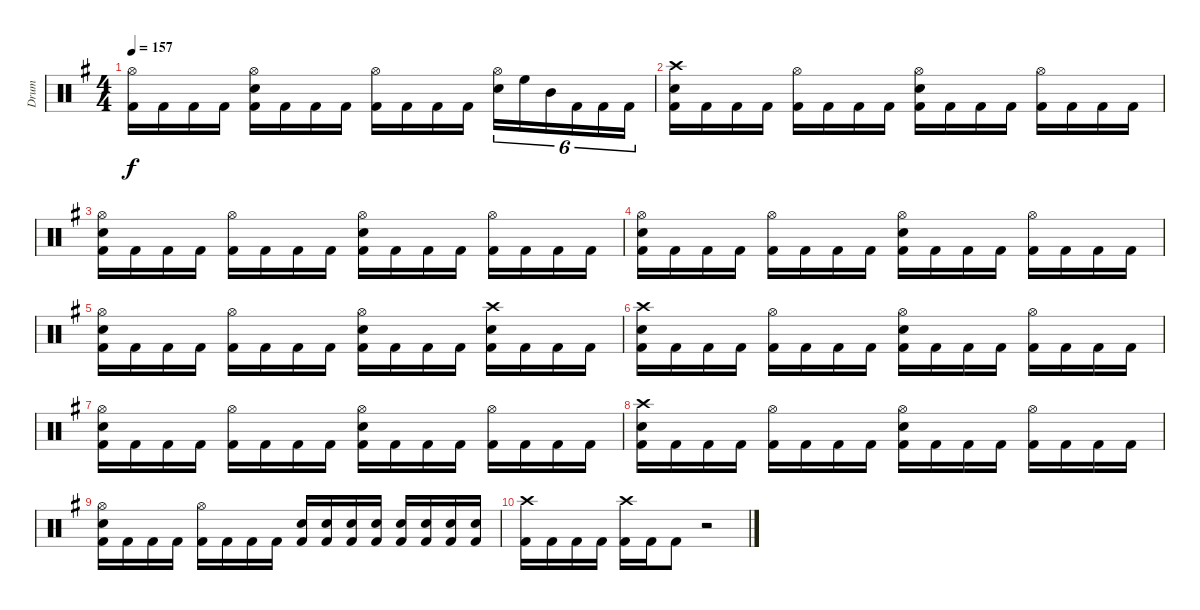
\track ("Drum" "Drum") {instrument percussion}
\staff {score}
\articulation defaults
\ts (4 4)
\tempo 157
\clef neutral
\ks eminor
("Hi-Hat (open)" "Kick (hit) 2").16{dy f} "Kick (hit) 2".16 "Kick (hit) 2".16 "Kick (hit) 2".16 ("Hi-Hat (open)" "Snare (hit) 2" "Kick (hit) 2").16 "Kick (hit) 2".16 "Kick (hit) 2".16 "Kick (hit) 2".16 ("Hi-Hat (open)" "Kick (hit) 2").16 "Kick (hit) 2".16 "Kick (hit) 2".16 "Kick (hit) 2".16 ("Hi-Hat (open)" "Snare (hit) 2").16{tu (6 4)} "High Floor Tom (hit)".16{tu (6 4)} "Mid Tom (hit)".16{tu (6 4)} "Kick (hit) 2".16{tu (6 4)} "Kick (hit) 2".16{tu (6 4)} "Kick (hit) 2".16{tu (6 4)} |
("Crash high (hit)" "Snare (hit) 2" "Kick (hit) 2").16 "Kick (hit) 2".16 "Kick (hit) 2".16 "Kick (hit) 2".16 ("Hi-Hat (open)" "Kick (hit) 2").16 "Kick (hit) 2".16 "Kick (hit) 2".16 "Kick (hit) 2".16 ("Hi-Hat (open)" "Snare (hit) 2" "Kick (hit) 2").16 "Kick (hit) 2".16 "Kick (hit) 2".16 "Kick (hit) 2".16 ("Hi-Hat (open)" "Kick (hit) 2").16 "Kick (hit) 2".16 "Kick (hit) 2".16 "Kick (hit) 2".16 |
("Hi-Hat (open)" "Snare (hit) 2" "Kick (hit) 2").16 "Kick (hit) 2".16 "Kick (hit) 2".16 "Kick (hit) 2".16 ("Hi-Hat (open)" "Kick (hit) 2").16 "Kick (hit) 2".16 "Kick (hit) 2".16 "Kick (hit) 2".16 ("Hi-Hat (open)" "Snare (hit) 2" "Kick (hit) 2").16 "Kick (hit) 2".16 "Kick (hit) 2".16 "Kick (hit) 2".16 ("Hi-Hat (open)" "Kick (hit) 2").16 "Kick (hit) 2".16 "Kick (hit) 2".16 "Kick (hit) 2".16 |
("Hi-Hat (open)" "Snare (hit) 2" "Kick (hit) 2").16 "Kick (hit) 2".16 "Kick (hit) 2".16 "Kick (hit) 2".16 ("Hi-Hat (open)" "Kick (hit) 2").16 "Kick (hit) 2".16 "Kick (hit) 2".16 "Kick (hit) 2".16 ("Hi-Hat (open)" "Snare (hit) 2" "Kick (hit) 2").16 "Kick (hit) 2".16 "Kick (hit) 2".16 "Kick (hit) 2".16 ("Hi-Hat (open)" "Kick (hit) 2").16 "Kick (hit) 2".16 "Kick (hit) 2".16 "Kick (hit) 2".16 |
("Hi-Hat (open)" "Snare (hit) 2" "Kick (hit) 2").16 "Kick (hit) 2".16 "Kick (hit) 2".16 "Kick (hit) 2".16 ("Hi-Hat (open)" "Kick (hit) 2").16 "Kick (hit) 2".16 "Kick (hit) 2".16 "Kick (hit) 2".16 ("Hi-Hat (open)" "Snare (hit) 2" "Kick (hit) 2").16 "Kick (hit) 2".16 "Kick (hit) 2".16 "Kick (hit) 2".16 ("Crash high (hit)" "Snare (hit) 2" "Kick (hit) 2").16 "Kick (hit) 2".16 "Kick (hit) 2".16 "Kick (hit) 2".16 |
("Crash high (hit)" "Snare (hit) 2" "Kick (hit) 2").16 "Kick (hit) 2".16 "Kick (hit) 2".16 "Kick (hit) 2".16 ("Hi-Hat (open)" "Kick (hit) 2").16 "Kick (hit) 2".16 "Kick (hit) 2".16 "Kick (hit) 2".16 ("Hi-Hat (open)" "Snare (hit) 2" "Kick (hit) 2").16 "Kick (hit) 2".16 "Kick (hit) 2".16 "Kick (hit) 2".16 ("Hi-Hat (open)" "Kick (hit) 2").16 "Kick (hit) 2".16 "Kick (hit) 2".16 "Kick (hit) 2".16 |
("Hi-Hat (open)" "Snare (hit) 2" "Kick (hit) 2").16 "Kick (hit) 2".16 "Kick (hit) 2".16 "Kick (hit) 2".16 ("Hi-Hat (open)" "Kick (hit) 2").16 "Kick (hit) 2".16 "Kick (hit) 2".16 "Kick (hit) 2".16 ("Hi-Hat (open)" "Snare (hit) 2" "Kick (hit) 2").16 "Kick (hit) 2".16 "Kick (hit) 2".16 "Kick (hit) 2".16 ("Hi-Hat (open)" "Kick (hit) 2").16 "Kick (hit) 2".16 "Kick (hit) 2".16 "Kick (hit) 2".16 |
("Crash high (hit)" "Snare (hit) 2" "Kick (hit) 2").16 "Kick (hit) 2".16 "Kick (hit) 2".16 "Kick (hit) 2".16 ("Hi-Hat (open)" "Kick (hit) 2").16 "Kick (hit) 2".16 "Kick (hit) 2".16 "Kick (hit) 2".16 ("Hi-Hat (open)" "Snare (hit) 2" "Kick (hit) 2").16 "Kick (hit) 2".16 "Kick (hit) 2".16 "Kick (hit) 2".16 ("Hi-Hat (open)" "Kick (hit) 2").16 "Kick (hit) 2".16 "Kick (hit) 2".16 "Kick (hit) 2".16 |
("Hi-Hat (open)" "Snare (hit) 2" "Kick (hit) 2").16 "Kick (hit) 2".16 "Kick (hit) 2".16 "Kick (hit) 2".16 ("Hi-Hat (open)" "Kick (hit) 2").16 "Kick (hit) 2".16 "Kick (hit) 2".16 "Kick (hit) 2".16 ("Snare (hit) 2" "Kick (hit) 2").16 ("Snare (hit) 2" "Kick (hit) 2").16 ("Snare (hit) 2" "Kick (hit) 2").16 ("Snare (hit) 2" "Kick (hit) 2").16 ("Snare (hit) 2" "Kick (hit) 2").16 ("Snare (hit) 2" "Kick (hit) 2").16 ("Snare (hit) 2" "Kick (hit) 2").16 ("Snare (hit) 2" "Kick (hit) 2").16 |
("Crash high (hit)" "Kick (hit) 2").16 "Kick (hit) 2".16 "Kick (hit) 2".16 "Kick (hit) 2".16 ("Crash high (hit)" "Kick (hit) 2").16 "Kick (hit) 2".16 "Kick (hit) 2".8 r.2
